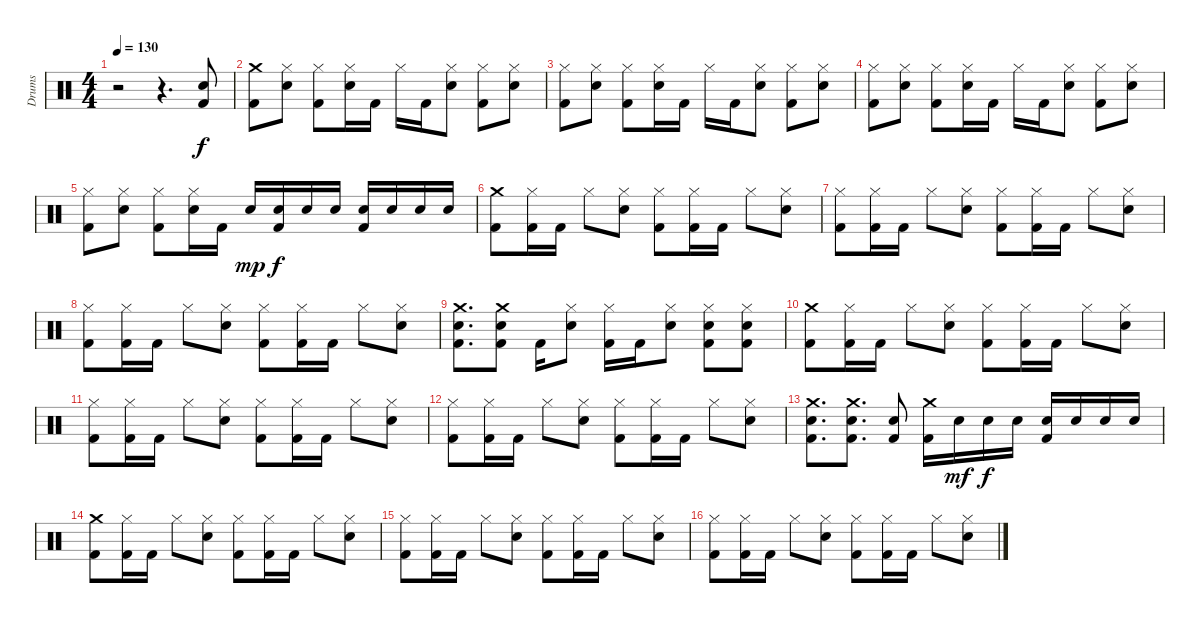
\track ("Drums" "Drums") {instrument percussion}
\staff {score}
\articulation defaults
\ts (4 4)
\tempo 130
\clef neutral
\ks c
r.2{dy f} r.4{d} ("Electric Snare (hit)" "Kick (hit) 2").8 |
("Crash medium (hit)" "Kick (hit) 2").8 ("Hi-Hat (closed)" "Electric Snare (hit)").8 ("Hi-Hat (closed)" "Kick (hit) 2").8 ("Hi-Hat (closed)" "Electric Snare (hit)").16 "Kick (hit) 2".16 "Hi-Hat (closed)".16 "Kick (hit) 2".16 ("Hi-Hat (closed)" "Electric Snare (hit)").8 ("Hi-Hat (closed)" "Kick (hit) 2").8 ("Hi-Hat (closed)" "Electric Snare (hit)").8 |
("Hi-Hat (closed)" "Kick (hit) 2").8 ("Hi-Hat (closed)" "Electric Snare (hit)").8 ("Hi-Hat (closed)" "Kick (hit) 2").8 ("Hi-Hat (closed)" "Electric Snare (hit)").16 "Kick (hit) 2".16 "Hi-Hat (closed)".16 "Kick (hit) 2".16 ("Hi-Hat (closed)" "Electric Snare (hit)").8 ("Hi-Hat (closed)" "Kick (hit) 2").8 ("Hi-Hat (closed)" "Electric Snare (hit)").8 |
("Hi-Hat (closed)" "Kick (hit) 2").8 ("Hi-Hat (closed)" "Electric Snare (hit)").8 ("Hi-Hat (closed)" "Kick (hit) 2").8 ("Hi-Hat (closed)" "Electric Snare (hit)").16 "Kick (hit) 2".16 "Hi-Hat (closed)".16 "Kick (hit) 2".16 ("Hi-Hat (closed)" "Electric Snare (hit)").8 ("Hi-Hat (closed)" "Kick (hit) 2").8 ("Hi-Hat (closed)" "Electric Snare (hit)").8 |
("Hi-Hat (closed)" "Kick (hit) 2").8 ("Hi-Hat (closed)" "Electric Snare (hit)").8 ("Hi-Hat (closed)" "Kick (hit) 2").8 ("Hi-Hat (closed)" "Electric Snare (hit)").16 "Kick (hit) 2".16 "Electric Snare (hit)".16{dy mp} ("Electric Snare (hit)" "Kick (hit) 2").16{dy f} "Electric Snare (hit)".16 "Electric Snare (hit)".16 ("Electric Snare (hit)" "Kick (hit) 2").16 "Electric Snare (hit)".16 "Electric Snare (hit)".16 "Electric Snare (hit)".16 |
("Crash medium (hit)" "Kick (hit) 2").8 ("Hi-Hat (closed)" "Kick (hit) 2").16 "Kick (hit) 2".16 "Hi-Hat (closed)".8 ("Hi-Hat (closed)" "Electric Snare (hit)").8 ("Hi-Hat (closed)" "Kick (hit) 2").8 ("Hi-Hat (closed)" "Kick (hit) 2").16 "Kick (hit) 2".16 "Hi-Hat (closed)".8 ("Hi-Hat (closed)" "Electric Snare (hit)").8 |
("Hi-Hat (closed)" "Kick (hit) 2").8 ("Hi-Hat (closed)" "Kick (hit) 2").16 "Kick (hit) 2".16 "Hi-Hat (closed)".8 ("Hi-Hat (closed)" "Electric Snare (hit)").8 ("Hi-Hat (closed)" "Kick (hit) 2").8 ("Hi-Hat (closed)" "Kick (hit) 2").16 "Kick (hit) 2".16 "Hi-Hat (closed)".8 ("Hi-Hat (closed)" "Electric Snare (hit)").8 |
("Hi-Hat (closed)" "Kick (hit) 2").8 ("Hi-Hat (closed)" "Kick (hit) 2").16 "Kick (hit) 2".16 "Hi-Hat (closed)".8 ("Hi-Hat (closed)" "Electric Snare (hit)").8 ("Hi-Hat (closed)" "Kick (hit) 2").8 ("Hi-Hat (closed)" "Kick (hit) 2").16 "Kick (hit) 2".16 "Hi-Hat (closed)".8 ("Hi-Hat (closed)" "Electric Snare (hit)").8 |
("Crash medium (hit)" "Electric Snare (hit)" "Kick (hit) 2").8{d} ("Crash medium (hit)" "Electric Snare (hit)" "Kick (hit) 2").8 "Kick (hit) 2".16 ("Hi-Hat (closed)" "Electric Snare (hit)").8 ("Hi-Hat (closed)" "Kick (hit) 2").16 "Kick (hit) 2".16 ("Hi-Hat (closed)" "Electric Snare (hit)").8 ("Hi-Hat (closed)" "Electric Snare (hit)" "Kick (hit) 2").8 ("Hi-Hat (closed)" "Electric Snare (hit)" "Kick (hit) 2").8 |
("Crash medium (hit)" "Kick (hit) 2").8 ("Hi-Hat (closed)" "Kick (hit) 2").16 "Kick (hit) 2".16 "Hi-Hat (closed)".8 ("Hi-Hat (closed)" "Electric Snare (hit)").8 ("Hi-Hat (closed)" "Kick (hit) 2").8 ("Hi-Hat (closed)" "Kick (hit) 2").16 "Kick (hit) 2".16 "Hi-Hat (closed)".8 ("Hi-Hat (closed)" "Electric Snare (hit)").8 |
("Hi-Hat (closed)" "Kick (hit) 2").8 ("Hi-Hat (closed)" "Kick (hit) 2").16 "Kick (hit) 2".16 "Hi-Hat (closed)".8 ("Hi-Hat (closed)" "Electric Snare (hit)").8 ("Hi-Hat (closed)" "Kick (hit) 2").8 ("Hi-Hat (closed)" "Kick (hit) 2").16 "Kick (hit) 2".16 "Hi-Hat (closed)".8 ("Hi-Hat (closed)" "Electric Snare (hit)").8 |
("Hi-Hat (closed)" "Kick (hit) 2").8 ("Hi-Hat (closed)" "Kick (hit) 2").16 "Kick (hit) 2".16 "Hi-Hat (closed)".8 ("Hi-Hat (closed)" "Electric Snare (hit)").8 ("Hi-Hat (closed)" "Kick (hit) 2").8 ("Hi-Hat (closed)" "Kick (hit) 2").16 "Kick (hit) 2".16 "Hi-Hat (closed)".8 ("Hi-Hat (closed)" "Electric Snare (hit)").8 |
("Crash medium (hit)" "Electric Snare (hit)" "Kick (hit) 2").8{d} ("Crash medium (hit)" "Electric Snare (hit)" "Kick (hit) 2").8{d} ("Electric Snare (hit)" "Kick (hit) 2").8 ("Crash medium (hit)" "Kick (hit) 2").16 "Electric Snare (hit)".16{dy mf} "Electric Snare (hit)".16{dy f} "Electric Snare (hit)".16 ("Electric Snare (hit)" "Kick (hit) 2").16 "Electric Snare (hit)".16 "Electric Snare (hit)".16 "Electric Snare (hit)".16 |
("Crash medium (hit)" "Kick (hit) 2").8 ("Hi-Hat (closed)" "Kick (hit) 2").16 "Kick (hit) 2".16 "Hi-Hat (closed)".8 ("Hi-Hat (closed)" "Electric Snare (hit)").8 ("Hi-Hat (closed)" "Kick (hit) 2").8 ("Hi-Hat (closed)" "Kick (hit) 2").16 "Kick (hit) 2".16 "Hi-Hat (closed)".8 ("Hi-Hat (closed)" "Electric Snare (hit)").8 |
("Hi-Hat (closed)" "Kick (hit) 2").8 ("Hi-Hat (closed)" "Kick (hit) 2").16 "Kick (hit) 2".16 "Hi-Hat (closed)".8 ("Hi-Hat (closed)" "Electric Snare (hit)").8 ("Hi-Hat (closed)" "Kick (hit) 2").8 ("Hi-Hat (closed)" "Kick (hit) 2").16 "Kick (hit) 2".16 "Hi-Hat (closed)".8 ("Hi-Hat (closed)" "Electric Snare (hit)").8 |
("Hi-Hat (closed)" "Kick (hit) 2").8 ("Hi-Hat (closed)" "Kick (hit) 2").16 "Kick (hit) 2".16 "Hi-Hat (closed)".8 ("Hi-Hat (closed)" "Electric Snare (hit)").8 ("Hi-Hat (closed)" "Kick (hit) 2").8 ("Hi-Hat (closed)" "Kick (hit) 2").16 "Kick (hit) 2".16 "Hi-Hat (closed)".8 ("Hi-Hat (closed)" "Electric Snare (hit)").8
